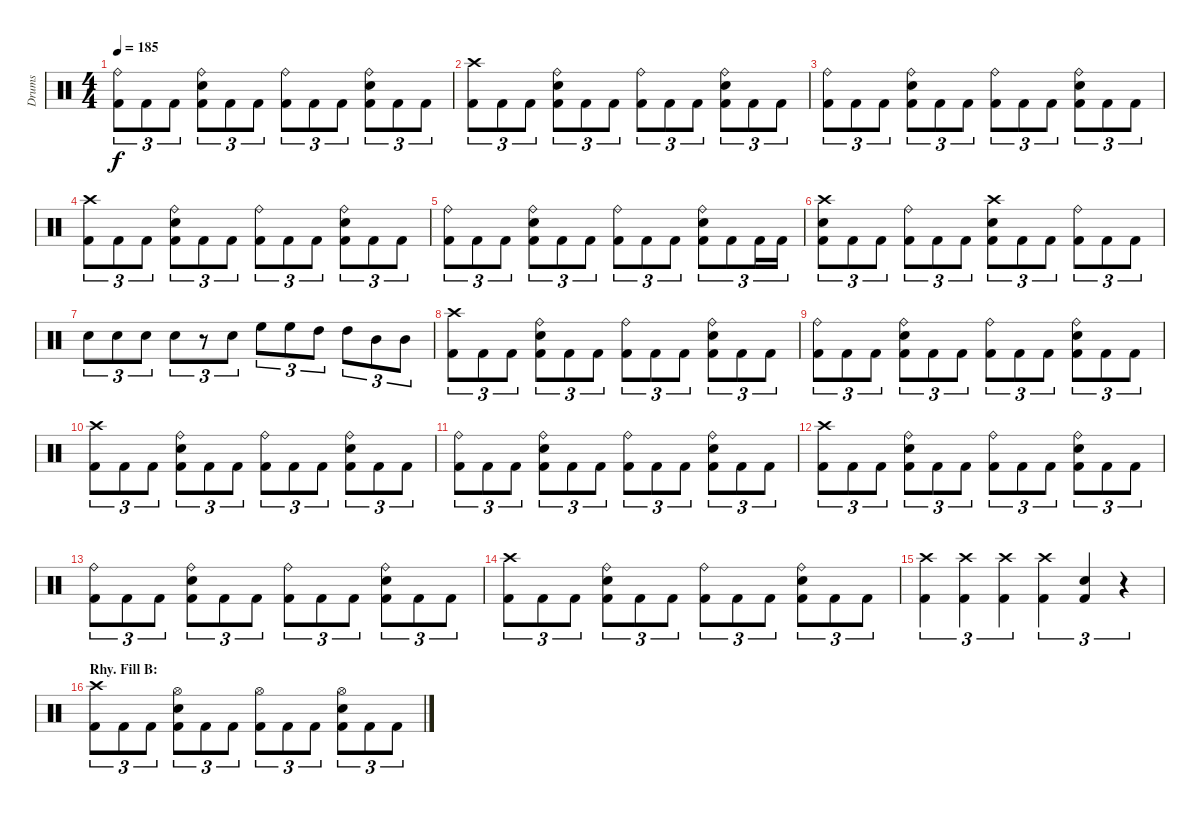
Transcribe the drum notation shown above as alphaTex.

\track ("Drums" "Drums") {instrument percussion}
\staff {score}
\articulation defaults
\ts (4 4)
\tempo 185
\clef neutral
\ks c
("Ride (bell)" "Kick (hit) 2").8{tu (3 2) dy f} "Kick (hit) 2".8{tu (3 2)} "Kick (hit) 2".8{tu (3 2)} ("Ride (bell)" "Electric Snare (hit)" "Kick (hit) 2").8{tu (3 2)} "Kick (hit) 2".8{tu (3 2)} "Kick (hit) 2".8{tu (3 2)} ("Ride (bell)" "Kick (hit) 2").8{tu (3 2)} "Kick (hit) 2".8{tu (3 2)} "Kick (hit) 2".8{tu (3 2)} ("Ride (bell)" "Electric Snare (hit)" "Kick (hit) 2").8{tu (3 2)} "Kick (hit) 2".8{tu (3 2)} "Kick (hit) 2".8{tu (3 2)} |
("Crash high (hit)" "Kick (hit) 2").8{tu (3 2)} "Kick (hit) 2".8{tu (3 2)} "Kick (hit) 2".8{tu (3 2)} ("Ride (bell)" "Electric Snare (hit)" "Kick (hit) 2").8{tu (3 2)} "Kick (hit) 2".8{tu (3 2)} "Kick (hit) 2".8{tu (3 2)} ("Ride (bell)" "Kick (hit) 2").8{tu (3 2)} "Kick (hit) 2".8{tu (3 2)} "Kick (hit) 2".8{tu (3 2)} ("Ride (bell)" "Electric Snare (hit)" "Kick (hit) 2").8{tu (3 2)} "Kick (hit) 2".8{tu (3 2)} "Kick (hit) 2".8{tu (3 2)} |
("Ride (bell)" "Kick (hit) 2").8{tu (3 2)} "Kick (hit) 2".8{tu (3 2)} "Kick (hit) 2".8{tu (3 2)} ("Ride (bell)" "Electric Snare (hit)" "Kick (hit) 2").8{tu (3 2)} "Kick (hit) 2".8{tu (3 2)} "Kick (hit) 2".8{tu (3 2)} ("Ride (bell)" "Kick (hit) 2").8{tu (3 2)} "Kick (hit) 2".8{tu (3 2)} "Kick (hit) 2".8{tu (3 2)} ("Ride (bell)" "Electric Snare (hit)" "Kick (hit) 2").8{tu (3 2)} "Kick (hit) 2".8{tu (3 2)} "Kick (hit) 2".8{tu (3 2)} |
("Crash high (hit)" "Kick (hit) 2").8{tu (3 2)} "Kick (hit) 2".8{tu (3 2)} "Kick (hit) 2".8{tu (3 2)} ("Ride (bell)" "Electric Snare (hit)" "Kick (hit) 2").8{tu (3 2)} "Kick (hit) 2".8{tu (3 2)} "Kick (hit) 2".8{tu (3 2)} ("Ride (bell)" "Kick (hit) 2").8{tu (3 2)} "Kick (hit) 2".8{tu (3 2)} "Kick (hit) 2".8{tu (3 2)} ("Ride (bell)" "Electric Snare (hit)" "Kick (hit) 2").8{tu (3 2)} "Kick (hit) 2".8{tu (3 2)} "Kick (hit) 2".8{tu (3 2)} |
("Ride (bell)" "Kick (hit) 2").8{tu (3 2)} "Kick (hit) 2".8{tu (3 2)} "Kick (hit) 2".8{tu (3 2)} ("Ride (bell)" "Electric Snare (hit)" "Kick (hit) 2").8{tu (3 2)} "Kick (hit) 2".8{tu (3 2)} "Kick (hit) 2".8{tu (3 2)} ("Ride (bell)" "Kick (hit) 2").8{tu (3 2)} "Kick (hit) 2".8{tu (3 2)} "Kick (hit) 2".8{tu (3 2)} ("Ride (bell)" "Electric Snare (hit)" "Kick (hit) 2").8{tu (3 2)} "Kick (hit) 2".8{tu (3 2)} "Kick (hit) 2".16{tu (3 2)} "Kick (hit) 2".16{tu (3 2)} |
("Crash high (hit)" "Electric Snare (hit)" "Kick (hit) 2").8{tu (3 2)} "Kick (hit) 2".8{tu (3 2)} "Kick (hit) 2".8{tu (3 2)} ("Ride (bell)" "Kick (hit) 2").8{tu (3 2)} "Kick (hit) 2".8{tu (3 2)} "Kick (hit) 2".8{tu (3 2)} ("Crash high (hit)" "Electric Snare (hit)" "Kick (hit) 2").8{tu (3 2)} "Kick (hit) 2".8{tu (3 2)} "Kick (hit) 2".8{tu (3 2)} ("Ride (bell)" "Kick (hit) 2").8{tu (3 2)} "Kick (hit) 2".8{tu (3 2)} "Kick (hit) 2".8{tu (3 2)} |
"Electric Snare (hit)".8{tu (3 2)} "Electric Snare (hit)".8{tu (3 2)} "Electric Snare (hit)".8{tu (3 2)} "Electric Snare (hit)".8{tu (3 2)} r.8{tu (3 2)} "Electric Snare (hit)".8{tu (3 2)} "High Floor Tom (hit)".8{tu (3 2)} "High Floor Tom (hit)".8{tu (3 2)} "High Tom (hit)".8{tu (3 2)} "High Tom (hit)".8{tu (3 2)} "Mid Tom (hit)".8{tu (3 2)} "Mid Tom (hit)".8{tu (3 2)} |
("Crash high (hit)" "Kick (hit) 2").8{tu (3 2)} "Kick (hit) 2".8{tu (3 2)} "Kick (hit) 2".8{tu (3 2)} ("Ride (bell)" "Electric Snare (hit)" "Kick (hit) 2").8{tu (3 2)} "Kick (hit) 2".8{tu (3 2)} "Kick (hit) 2".8{tu (3 2)} ("Ride (bell)" "Kick (hit) 2").8{tu (3 2)} "Kick (hit) 2".8{tu (3 2)} "Kick (hit) 2".8{tu (3 2)} ("Ride (bell)" "Electric Snare (hit)" "Kick (hit) 2").8{tu (3 2)} "Kick (hit) 2".8{tu (3 2)} "Kick (hit) 2".8{tu (3 2)} |
("Ride (bell)" "Kick (hit) 2").8{tu (3 2)} "Kick (hit) 2".8{tu (3 2)} "Kick (hit) 2".8{tu (3 2)} ("Ride (bell)" "Electric Snare (hit)" "Kick (hit) 2").8{tu (3 2)} "Kick (hit) 2".8{tu (3 2)} "Kick (hit) 2".8{tu (3 2)} ("Ride (bell)" "Kick (hit) 2").8{tu (3 2)} "Kick (hit) 2".8{tu (3 2)} "Kick (hit) 2".8{tu (3 2)} ("Ride (bell)" "Electric Snare (hit)" "Kick (hit) 2").8{tu (3 2)} "Kick (hit) 2".8{tu (3 2)} "Kick (hit) 2".8{tu (3 2)} |
("Crash high (hit)" "Kick (hit) 2").8{tu (3 2)} "Kick (hit) 2".8{tu (3 2)} "Kick (hit) 2".8{tu (3 2)} ("Ride (bell)" "Electric Snare (hit)" "Kick (hit) 2").8{tu (3 2)} "Kick (hit) 2".8{tu (3 2)} "Kick (hit) 2".8{tu (3 2)} ("Ride (bell)" "Kick (hit) 2").8{tu (3 2)} "Kick (hit) 2".8{tu (3 2)} "Kick (hit) 2".8{tu (3 2)} ("Ride (bell)" "Electric Snare (hit)" "Kick (hit) 2").8{tu (3 2)} "Kick (hit) 2".8{tu (3 2)} "Kick (hit) 2".8{tu (3 2)} |
("Ride (bell)" "Kick (hit) 2").8{tu (3 2)} "Kick (hit) 2".8{tu (3 2)} "Kick (hit) 2".8{tu (3 2)} ("Ride (bell)" "Electric Snare (hit)" "Kick (hit) 2").8{tu (3 2)} "Kick (hit) 2".8{tu (3 2)} "Kick (hit) 2".8{tu (3 2)} ("Ride (bell)" "Kick (hit) 2").8{tu (3 2)} "Kick (hit) 2".8{tu (3 2)} "Kick (hit) 2".8{tu (3 2)} ("Ride (bell)" "Electric Snare (hit)" "Kick (hit) 2").8{tu (3 2)} "Kick (hit) 2".8{tu (3 2)} "Kick (hit) 2".8{tu (3 2)} |
("Crash high (hit)" "Kick (hit) 2").8{tu (3 2)} "Kick (hit) 2".8{tu (3 2)} "Kick (hit) 2".8{tu (3 2)} ("Ride (bell)" "Electric Snare (hit)" "Kick (hit) 2").8{tu (3 2)} "Kick (hit) 2".8{tu (3 2)} "Kick (hit) 2".8{tu (3 2)} ("Ride (bell)" "Kick (hit) 2").8{tu (3 2)} "Kick (hit) 2".8{tu (3 2)} "Kick (hit) 2".8{tu (3 2)} ("Ride (bell)" "Electric Snare (hit)" "Kick (hit) 2").8{tu (3 2)} "Kick (hit) 2".8{tu (3 2)} "Kick (hit) 2".8{tu (3 2)} |
("Ride (bell)" "Kick (hit) 2").8{tu (3 2)} "Kick (hit) 2".8{tu (3 2)} "Kick (hit) 2".8{tu (3 2)} ("Ride (bell)" "Electric Snare (hit)" "Kick (hit) 2").8{tu (3 2)} "Kick (hit) 2".8{tu (3 2)} "Kick (hit) 2".8{tu (3 2)} ("Ride (bell)" "Kick (hit) 2").8{tu (3 2)} "Kick (hit) 2".8{tu (3 2)} "Kick (hit) 2".8{tu (3 2)} ("Ride (bell)" "Electric Snare (hit)" "Kick (hit) 2").8{tu (3 2)} "Kick (hit) 2".8{tu (3 2)} "Kick (hit) 2".8{tu (3 2)} |
("Crash high (hit)" "Kick (hit) 2").8{tu (3 2)} "Kick (hit) 2".8{tu (3 2)} "Kick (hit) 2".8{tu (3 2)} ("Ride (bell)" "Electric Snare (hit)" "Kick (hit) 2").8{tu (3 2)} "Kick (hit) 2".8{tu (3 2)} "Kick (hit) 2".8{tu (3 2)} ("Ride (bell)" "Kick (hit) 2").8{tu (3 2)} "Kick (hit) 2".8{tu (3 2)} "Kick (hit) 2".8{tu (3 2)} ("Ride (bell)" "Electric Snare (hit)" "Kick (hit) 2").8{tu (3 2)} "Kick (hit) 2".8{tu (3 2)} "Kick (hit) 2".8{tu (3 2)} |
("Crash high (hit)" "Kick (hit) 2").4{tu (3 2)} ("Crash high (hit)" "Kick (hit) 2").4{tu (3 2)} ("Crash high (hit)" "Kick (hit) 2").4{tu (3 2)} ("Crash high (hit)" "Kick (hit) 2").4{tu (3 2)} ("Electric Snare (hit)" "Kick (hit) 2").4{tu (3 2)} r.4{tu (3 2)} |
\section ("" "Rhy. Fill B:")
("Crash high (hit)" "Kick (hit) 2").8{tu (3 2)} "Kick (hit) 2".8{tu (3 2)} "Kick (hit) 2".8{tu (3 2)} ("Hi-Hat (open)" "Electric Snare (hit)" "Kick (hit) 2").8{tu (3 2)} "Kick (hit) 2".8{tu (3 2)} "Kick (hit) 2".8{tu (3 2)} ("Hi-Hat (open)" "Kick (hit) 2").8{tu (3 2)} "Kick (hit) 2".8{tu (3 2)} "Kick (hit) 2".8{tu (3 2)} ("Hi-Hat (open)" "Electric Snare (hit)" "Kick (hit) 2").8{tu (3 2)} "Kick (hit) 2".8{tu (3 2)} "Kick (hit) 2".8{tu (3 2)}
